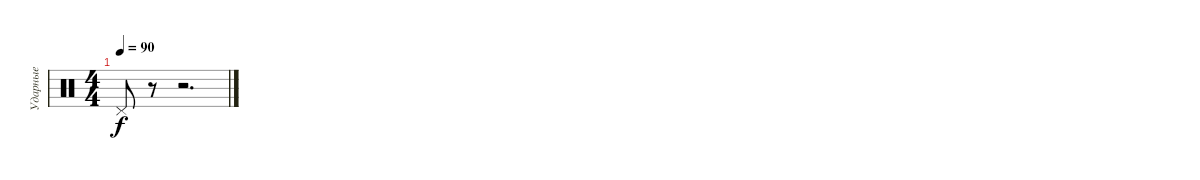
\track ("Ударные" "Ударные") {instrument percussion}
\staff {score}
\articulation defaults
\ts (4 4)
\tempo 90
\clef neutral
\ks c "Pedal Hi-Hat (hit)".8{dy f}
r.8 r.2{d}
